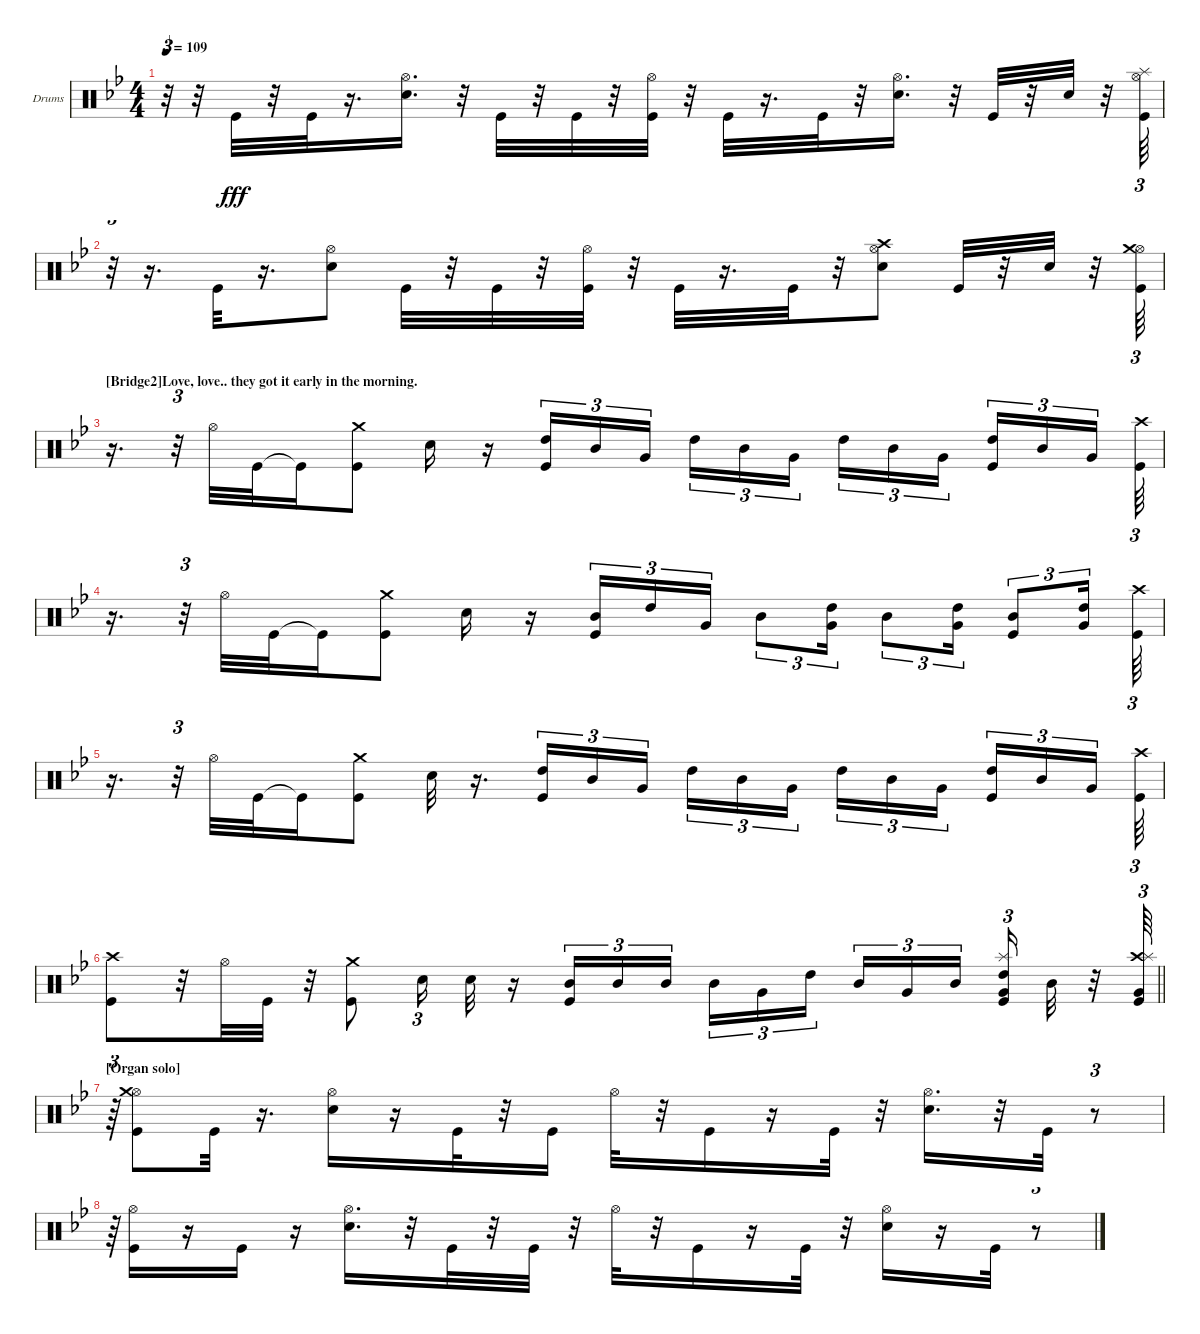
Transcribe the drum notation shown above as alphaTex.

\bracketExtendMode groupsimilarinstruments
\firstSystemTrackNameOrientation horizontal
\otherSystemsTrackNameOrientation horizontal
\track ("Drumkit" "Drums") {instrument percussion}
\staff {score}
\articulation defaults
\ts (4 4)
\tempo 109
\clef neutral
\ks gminor
r.32{tu (3 2) dy fff} r.32 "Kick (hit)".32 r.32 "Kick (hit)".32 r.16{d} ("Snare (hit) 2" "Hi-Hat (open)").16{d} r.32 "Kick (hit)".32 r.32 "Kick (hit)".32 r.32 ("Kick (hit)" "Hi-Hat (open)").32 r.32 "Kick (hit)".32 r.16{d} "Kick (hit)".32 r.32 ("Snare (hit) 2" "Hi-Hat (open)").16{d} r.32 "Kick (hit)".32 r.32 "Snare (hit) 2".32 r.32 ("Kick (hit)" "Hi-Hat (open)" "Splash (hit)").64{tu (3 2)} |
r.32{tu (3 2)} r.16{d} "Kick (hit)".32 r.16{d} ("Snare (hit) 2" "Hi-Hat (open)").8 "Kick (hit)".32 r.32 "Kick (hit)".32 r.32 ("Kick (hit)" "Hi-Hat (open)").32 r.32 "Kick (hit)".32 r.16{d} "Kick (hit)".32 r.32 ("Snare (hit) 2" "Hi-Hat (open)" "Crash high (hit)").8 "Kick (hit)".32 r.32 "Snare (hit) 2".32 r.32 ("Kick (hit)" "Hi-Hat (open)" "Crash medium (hit)").64{tu (3 2)} |
\section ("" "[Bridge2]Love, love.. they got it early in the morning.")
r.16{d} r.32{tu (3 2)} "Hi-Hat (open)".32 "Kick (hit)".32 "Kick (hit)"{t}.16 ("Kick (hit)" "Crash medium (hit)").8 "Snare (hit) 2".16 r.16 ("Kick (hit)" "High Tom (hit)").16{tu (3 2)} "Mid Tom (hit)".16{tu (3 2)} "Very Low Tom (hit)".16{tu (3 2)} "High Tom (hit)".16{tu (3 2)} "Mid Tom (hit)".16{tu (3 2)} "Very Low Tom (hit)".16{tu (3 2)} "High Tom (hit)".16{tu (3 2)} "Mid Tom (hit)".16{tu (3 2)} "Very Low Tom (hit)".16{tu (3 2)} ("Kick (hit)" "High Tom (hit)").16{tu (3 2)} "Mid Tom (hit)".16{tu (3 2)} "Very Low Tom (hit)".16{tu (3 2)} ("Kick (hit)" "Crash high (hit)").64{tu (3 2)} |
r.16{d} r.32{tu (3 2)} "Hi-Hat (open)".32 "Kick (hit)".32 "Kick (hit)"{t}.16 ("Kick (hit)" "Crash medium (hit)").8 "Snare (hit) 2".16 r.16 ("Kick (hit)" "Mid Tom (hit)").16{tu (3 2)} "High Tom (hit)".16{tu (3 2)} "Very Low Tom (hit)".16{tu (3 2)} "Mid Tom (hit)".8{tu (3 2)} ("Very Low Tom (hit)" "High Tom (hit)").16{tu (3 2)} "Mid Tom (hit)".8{tu (3 2)} ("Very Low Tom (hit)" "High Tom (hit)").16{tu (3 2)} ("Kick (hit)" "Mid Tom (hit)").8{tu (3 2)} ("Very Low Tom (hit)" "High Tom (hit)").16{tu (3 2)} ("Kick (hit)" "Crash high (hit)").64{tu (3 2)} |
r.16{d} r.32{tu (3 2)} "Hi-Hat (open)".32 "Kick (hit)".32 "Kick (hit)"{t}.16 ("Kick (hit)" "Crash medium (hit)").8 "Snare (hit) 2".32 r.16{d} ("Kick (hit)" "High Tom (hit)").16{tu (3 2)} "Mid Tom (hit)".16{tu (3 2)} "Very Low Tom (hit)".16{tu (3 2)} "High Tom (hit)".16{tu (3 2)} "Mid Tom (hit)".16{tu (3 2)} "Very Low Tom (hit)".16{tu (3 2)} "High Tom (hit)".16{tu (3 2)} "Mid Tom (hit)".16{tu (3 2)} "Very Low Tom (hit)".16{tu (3 2)} ("Kick (hit)" "High Tom (hit)").16{tu (3 2)} "Mid Tom (hit)".16{tu (3 2)} "Very Low Tom (hit)".16{tu (3 2)} ("Kick (hit)" "Crash high (hit)").64{tu (3 2)} |
\barLineRight lightlight
("Kick (hit)" "Crash high (hit)").8 r.32 "Hi-Hat (open)".32 "Kick (hit)".32 r.32 ("Kick (hit)" "Crash medium (hit)").8 "Snare (hit) 2".16{tu (3 2)} "Snare (hit) 2".32 r.16 ("Kick (hit)" "Mid Tom (hit)").16{tu (3 2)} "Mid Tom (hit)".16{tu (3 2)} "Mid Tom (hit)".16{tu (3 2)} "Mid Tom (hit)".16{tu (3 2)} "Very Low Tom (hit)".16{tu (3 2)} "High Tom (hit)".16{tu (3 2)} "Mid Tom (hit)".16{tu (3 2)} "Very Low Tom (hit)".16{tu (3 2)} "Mid Tom (hit)".16{tu (3 2)} ("Kick (hit)" "Very Low Tom (hit)" "High Tom (hit)" "Splash (hit)").16{tu (3 2)} "Mid Tom (hit)".32 r.32 ("Kick (hit)" "Very Low Tom (hit)" "Crash high (hit)" "Splash (hit)").64{tu (3 2)} |
\section ("" "[Organ solo]")
r.64{tu (3 2)} ("Kick (hit)" "Hi-Hat (open)" "Crash medium (hit)").8 "Kick (hit)".32 r.16{d} ("Snare (hit) 2" "Hi-Hat (open)").16 r.16 "Kick (hit)".32 r.32 "Kick (hit)".16 "Hi-Hat (open)".32 r.32 "Kick (hit)".16 r.16 "Kick (hit)".32 r.32 ("Snare (hit) 2" "Hi-Hat (open)").16{d} r.32 "Kick (hit)".32 r.8{tu (3 2)} |
r.64{tu (3 2)} ("Kick (hit)" "Hi-Hat (open)").16 r.16 "Kick (hit)".16 r.16 ("Snare (hit) 2" "Hi-Hat (open)").16{d} r.32 "Kick (hit)".32 r.32 "Kick (hit)".32 r.32 "Hi-Hat (open)".32 r.32 "Kick (hit)".16 r.16 "Kick (hit)".32 r.32 ("Snare (hit) 2" "Hi-Hat (open)").16 r.16 "Kick (hit)".32 r.8{tu (3 2)}
